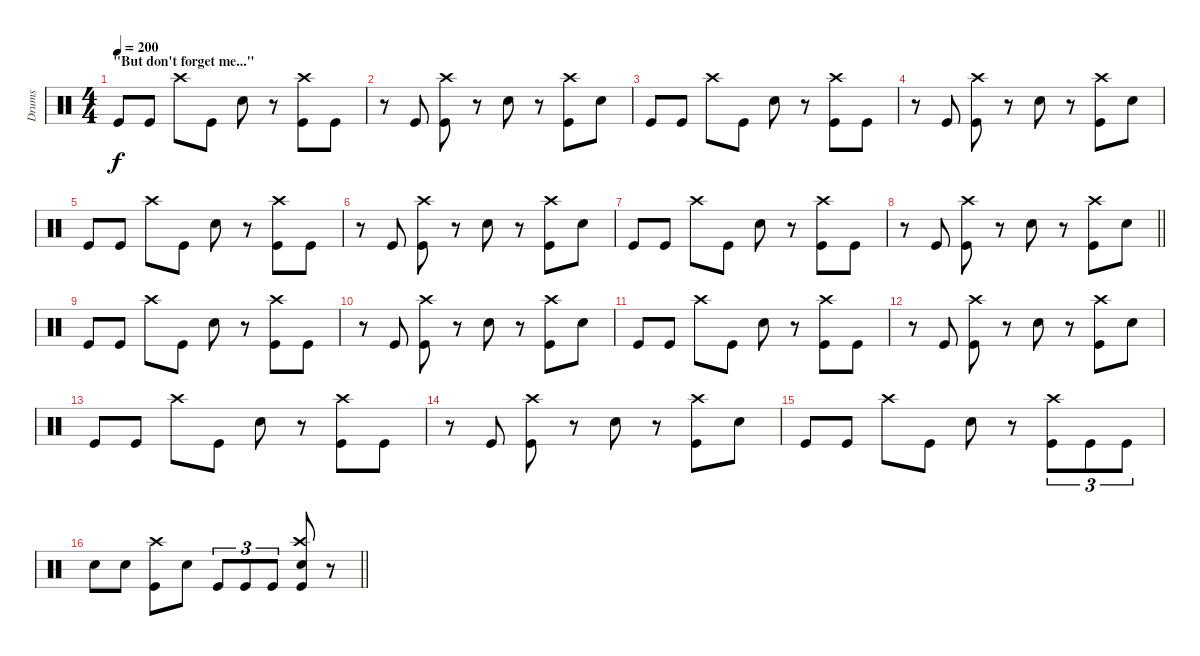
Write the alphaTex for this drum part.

\track ("Drums" "Drums") {instrument percussion}
\staff {score}
\articulation defaults
\ts (4 4)
\section ("" "\"But don't forget me...\"")
\tempo 200
\clef neutral
\ks c "Kick (hit)".8{dy f} "Kick (hit)".8 "Crash high (hit)".8 "Kick (hit)".8 "Electric Snare (hit)".8
r.8 ("Crash high (hit)" "Kick (hit)").8 "Kick (hit)".8 |
r.8 "Kick (hit)".8 ("Crash high (hit)" "Kick (hit)").8 r.8 "Electric Snare (hit)".8 r.8 ("Crash high (hit)" "Kick (hit)").8 "Electric Snare (hit)".8 |
"Kick (hit)".8 "Kick (hit)".8 "Crash high (hit)".8 "Kick (hit)".8 "Electric Snare (hit)".8 r.8 ("Crash high (hit)" "Kick (hit)").8 "Kick (hit)".8 |
r.8 "Kick (hit)".8 ("Crash high (hit)" "Kick (hit)").8 r.8 "Electric Snare (hit)".8 r.8 ("Crash high (hit)" "Kick (hit)").8 "Electric Snare (hit)".8 |
"Kick (hit)".8 "Kick (hit)".8 "Crash high (hit)".8 "Kick (hit)".8 "Electric Snare (hit)".8 r.8 ("Crash high (hit)" "Kick (hit)").8 "Kick (hit)".8 |
r.8 "Kick (hit)".8 ("Crash high (hit)" "Kick (hit)").8 r.8 "Electric Snare (hit)".8 r.8 ("Crash high (hit)" "Kick (hit)").8 "Electric Snare (hit)".8 |
"Kick (hit)".8 "Kick (hit)".8 "Crash high (hit)".8 "Kick (hit)".8 "Electric Snare (hit)".8 r.8 ("Crash high (hit)" "Kick (hit)").8 "Kick (hit)".8 |
\barLineRight lightlight
r.8 "Kick (hit)".8 ("Crash high (hit)" "Kick (hit)").8 r.8 "Electric Snare (hit)".8 r.8 ("Crash high (hit)" "Kick (hit)").8 "Electric Snare (hit)".8 |
"Kick (hit)".8 "Kick (hit)".8 "Crash high (hit)".8 "Kick (hit)".8 "Electric Snare (hit)".8 r.8 ("Crash high (hit)" "Kick (hit)").8 "Kick (hit)".8 |
r.8 "Kick (hit)".8 ("Crash high (hit)" "Kick (hit)").8 r.8 "Electric Snare (hit)".8 r.8 ("Crash high (hit)" "Kick (hit)").8 "Electric Snare (hit)".8 |
"Kick (hit)".8 "Kick (hit)".8 "Crash high (hit)".8 "Kick (hit)".8 "Electric Snare (hit)".8 r.8 ("Crash high (hit)" "Kick (hit)").8 "Kick (hit)".8 |
r.8 "Kick (hit)".8 ("Crash high (hit)" "Kick (hit)").8 r.8 "Electric Snare (hit)".8 r.8 ("Crash high (hit)" "Kick (hit)").8 "Electric Snare (hit)".8 |
"Kick (hit)".8 "Kick (hit)".8 "Crash high (hit)".8 "Kick (hit)".8 "Electric Snare (hit)".8 r.8 ("Crash high (hit)" "Kick (hit)").8 "Kick (hit)".8 |
r.8 "Kick (hit)".8 ("Crash high (hit)" "Kick (hit)").8 r.8 "Electric Snare (hit)".8 r.8 ("Crash high (hit)" "Kick (hit)").8 "Electric Snare (hit)".8 |
"Kick (hit)".8 "Kick (hit)".8 "Crash high (hit)".8 "Kick (hit)".8 "Electric Snare (hit)".8 r.8 ("Crash high (hit)" "Kick (hit)").8{tu (3 2)} "Kick (hit)".8{tu (3 2)} "Kick (hit)".8{tu (3 2)} |
\barLineRight lightlight "Electric Snare (hit)".8 "Electric Snare (hit)".8
("Crash high (hit)" "Kick (hit)").8 "Electric Snare (hit)".8 "Kick (hit)".8{tu (3 2)} "Kick (hit)".8{tu (3 2)} "Kick (hit)".8{tu (3 2)} ("Crash high (hit)" "Electric Snare (hit)" "Kick (hit)").8 r.8
